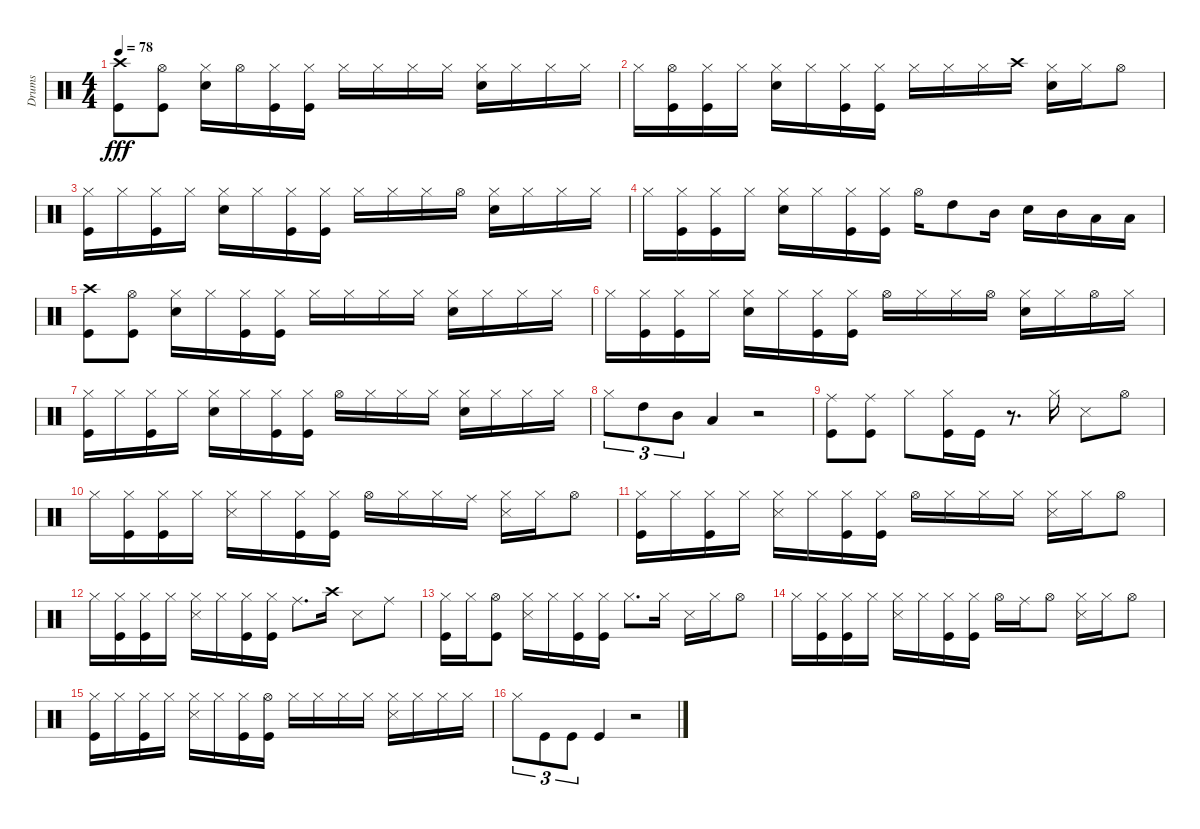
\track ("Drums" "Drums") {instrument percussion}
\staff {score}
\articulation defaults
\ts (4 4)
\tempo 78
\clef neutral
\ks c
("Crash high (hit)" "Kick (hit)").8{dy fff} ("Hi-Hat (open)" "Kick (hit)").8 ("Hi-Hat (closed)" "Snare (hit) 2").16 "Hi-Hat (open)".16 ("Hi-Hat (closed)" "Kick (hit)").16 ("Hi-Hat (closed)" "Kick (hit)").16 "Hi-Hat (closed)".16 "Hi-Hat (closed)".16 "Hi-Hat (closed)".16 "Hi-Hat (closed)".16 ("Hi-Hat (closed)" "Snare (hit) 2").16 "Hi-Hat (closed)".16 "Hi-Hat (closed)".16 "Hi-Hat (closed)".16 |
"Hi-Hat (closed)".16 ("Hi-Hat (open)" "Kick (hit)").16 ("Hi-Hat (closed)" "Kick (hit)").16 "Hi-Hat (closed)".16 ("Hi-Hat (closed)" "Snare (hit) 2").16 "Hi-Hat (closed)".16 ("Hi-Hat (closed)" "Kick (hit)").16 ("Hi-Hat (closed)" "Kick (hit)").16 "Hi-Hat (closed)".16 "Hi-Hat (closed)".16 "Hi-Hat (closed)".16 "Crash high (hit)".16 ("Hi-Hat (closed)" "Snare (hit) 2").16 "Hi-Hat (closed)".16 "Hi-Hat (open)".8 |
("Hi-Hat (closed)" "Kick (hit)").16 "Hi-Hat (closed)".16 ("Hi-Hat (closed)" "Kick (hit)").16 "Hi-Hat (closed)".16 ("Hi-Hat (closed)" "Snare (hit) 2").16 "Hi-Hat (closed)".16 ("Hi-Hat (closed)" "Kick (hit)").16 ("Hi-Hat (closed)" "Kick (hit)").16 "Hi-Hat (closed)".16 "Hi-Hat (closed)".16 "Hi-Hat (closed)".16 "Hi-Hat (open)".16 ("Hi-Hat (closed)" "Snare (hit) 2").16 "Hi-Hat (closed)".16 "Hi-Hat (closed)".16 "Hi-Hat (closed)".16 |
"Hi-Hat (closed)".16 ("Hi-Hat (closed)" "Kick (hit)").16 ("Hi-Hat (closed)" "Kick (hit)").16 "Hi-Hat (closed)".16 ("Hi-Hat (closed)" "Snare (hit) 2").16 "Hi-Hat (closed)".16 ("Hi-Hat (closed)" "Kick (hit)").16 ("Hi-Hat (closed)" "Kick (hit)").16 "Hi-Hat (open)".16 "High Tom (hit)".8 "Mid Tom (hit)".16 "Snare (hit) 2".16 "Mid Tom (hit)".16 "Low Tom (hit)".16 "Low Tom (hit)".16 |
("Crash high (hit)" "Kick (hit)").8 ("Hi-Hat (open)" "Kick (hit)").8 ("Hi-Hat (closed)" "Snare (hit) 2").16 "Hi-Hat (closed)".16 ("Hi-Hat (closed)" "Kick (hit)").16 ("Hi-Hat (closed)" "Kick (hit)").16 "Hi-Hat (closed)".16 "Hi-Hat (closed)".16 "Hi-Hat (closed)".16 "Hi-Hat (closed)".16 ("Hi-Hat (closed)" "Snare (hit) 2").16 "Hi-Hat (closed)".16 "Hi-Hat (closed)".16 "Hi-Hat (closed)".16 |
"Hi-Hat (closed)".16 ("Hi-Hat (closed)" "Kick (hit)").16 ("Hi-Hat (closed)" "Kick (hit)").16 "Hi-Hat (closed)".16 ("Hi-Hat (closed)" "Snare (hit) 2").16 "Hi-Hat (closed)".16 ("Hi-Hat (closed)" "Kick (hit)").16 ("Hi-Hat (closed)" "Kick (hit)").16 "Hi-Hat (open)".16 "Hi-Hat (closed)".16 "Hi-Hat (closed)".16 "Hi-Hat (open)".16 ("Hi-Hat (closed)" "Snare (hit) 2").16 "Hi-Hat (closed)".16 "Hi-Hat (open)".16 "Hi-Hat (closed)".16 |
("Hi-Hat (closed)" "Kick (hit)").16 "Hi-Hat (closed)".16 ("Hi-Hat (closed)" "Kick (hit)").16 "Hi-Hat (closed)".16 ("Hi-Hat (closed)" "Snare (hit) 2").16 "Hi-Hat (closed)".16 ("Hi-Hat (closed)" "Kick (hit)").16 ("Hi-Hat (closed)" "Kick (hit)").16 "Hi-Hat (open)".16 "Hi-Hat (closed)".16 "Hi-Hat (closed)".16 "Hi-Hat (closed)".16 ("Hi-Hat (closed)" "Snare (hit) 2").16 "Hi-Hat (closed)".16 "Hi-Hat (closed)".16 "Hi-Hat (closed)".16 |
"Hi-Hat (closed)".8{tu (3 2)} "High Tom (hit)".8{tu (3 2)} "Mid Tom (hit)".8{tu (3 2)} "Low Tom (hit)".4 r.2 |
("Ride (middle)" "Kick (hit)").8 ("Ride (middle)" "Kick (hit)").8 "Hi-Hat (closed)".8 ("Hi-Hat (closed)" "Kick (hit)").16 "Kick (hit)".16 r.8{d} "Hi-Hat (closed)".16 "Snare (side stick) 3".8 "Hi-Hat (open)".8 |
"Hi-Hat (closed)".16 ("Hi-Hat (closed)" "Kick (hit)").16 ("Hi-Hat (closed)" "Kick (hit)").16 "Hi-Hat (closed)".16 ("Hi-Hat (closed)" "Snare (side stick) 3").16 "Hi-Hat (closed)".16 ("Hi-Hat (closed)" "Kick (hit)").16 ("Hi-Hat (closed)" "Kick (hit)").16 "Hi-Hat (open)".16 "Hi-Hat (closed)".16 "Hi-Hat (closed)".16 "Ride (middle)".16 ("Hi-Hat (closed)" "Snare (side stick) 3").16 "Hi-Hat (closed)".16 "Hi-Hat (open)".8 |
("Hi-Hat (closed)" "Kick (hit)").16 "Hi-Hat (closed)".16 ("Hi-Hat (closed)" "Kick (hit)").16 "Hi-Hat (closed)".16 ("Hi-Hat (closed)" "Snare (side stick) 3").16 "Hi-Hat (closed)".16 ("Hi-Hat (closed)" "Kick (hit)").16 ("Hi-Hat (closed)" "Kick (hit)").16 "Hi-Hat (open)".16 "Hi-Hat (closed)".16 "Hi-Hat (closed)".16 "Hi-Hat (closed)".16 ("Hi-Hat (closed)" "Snare (side stick) 3").16 "Hi-Hat (closed)".16 "Hi-Hat (open)".8 |
"Hi-Hat (closed)".16 ("Hi-Hat (closed)" "Kick (hit)").16 ("Hi-Hat (closed)" "Kick (hit)").16 "Hi-Hat (closed)".16 ("Hi-Hat (closed)" "Snare (side stick) 3").16 "Hi-Hat (closed)".16 ("Hi-Hat (closed)" "Kick (hit)").16 ("Hi-Hat (closed)" "Kick (hit)").16 "Ride (middle)".8{d} "Crash high (hit)".16 "Snare (side stick) 3".8 "Ride (middle)".8 |
("Hi-Hat (closed)" "Kick (hit)").16 "Hi-Hat (closed)".16 ("Hi-Hat (open)" "Kick (hit)").8 ("Hi-Hat (closed)" "Snare (side stick) 3").16 "Hi-Hat (closed)".16 ("Hi-Hat (closed)" "Kick (hit)").16 ("Hi-Hat (closed)" "Kick (hit)").16 "Hi-Hat (closed)".8{d} "Hi-Hat (closed)".16 "Snare (side stick) 3".16 "Hi-Hat (closed)".16 "Hi-Hat (open)".8 |
"Hi-Hat (closed)".16 ("Hi-Hat (closed)" "Kick (hit)").16 ("Hi-Hat (closed)" "Kick (hit)").16 "Hi-Hat (closed)".16 ("Hi-Hat (closed)" "Snare (side stick) 3").16 "Hi-Hat (closed)".16 ("Hi-Hat (closed)" "Kick (hit)").16 ("Hi-Hat (closed)" "Kick (hit)").16 "Hi-Hat (open)".16 "Ride (middle)".16 "Hi-Hat (open)".8 ("Hi-Hat (closed)" "Snare (side stick) 3").16 "Hi-Hat (closed)".16 "Hi-Hat (open)".8 |
("Hi-Hat (closed)" "Kick (hit)").16 "Hi-Hat (closed)".16 ("Hi-Hat (closed)" "Kick (hit)").16 "Hi-Hat (closed)".16 ("Hi-Hat (closed)" "Snare (side stick) 3").16 "Hi-Hat (closed)".16 ("Hi-Hat (closed)" "Kick (hit)").16 ("Hi-Hat (open)" "Kick (hit)").16 "Hi-Hat (closed)".16 "Hi-Hat (closed)".16 "Hi-Hat (closed)".16 "Hi-Hat (closed)".16 ("Hi-Hat (closed)" "Snare (side stick) 3").16 "Hi-Hat (closed)".16 "Hi-Hat (closed)".16 "Hi-Hat (closed)".16 |
"Hi-Hat (closed)".8{tu (3 2)} "Kick (hit)".8{tu (3 2)} "Kick (hit)".8{tu (3 2)} "Kick (hit)".4 r.2
